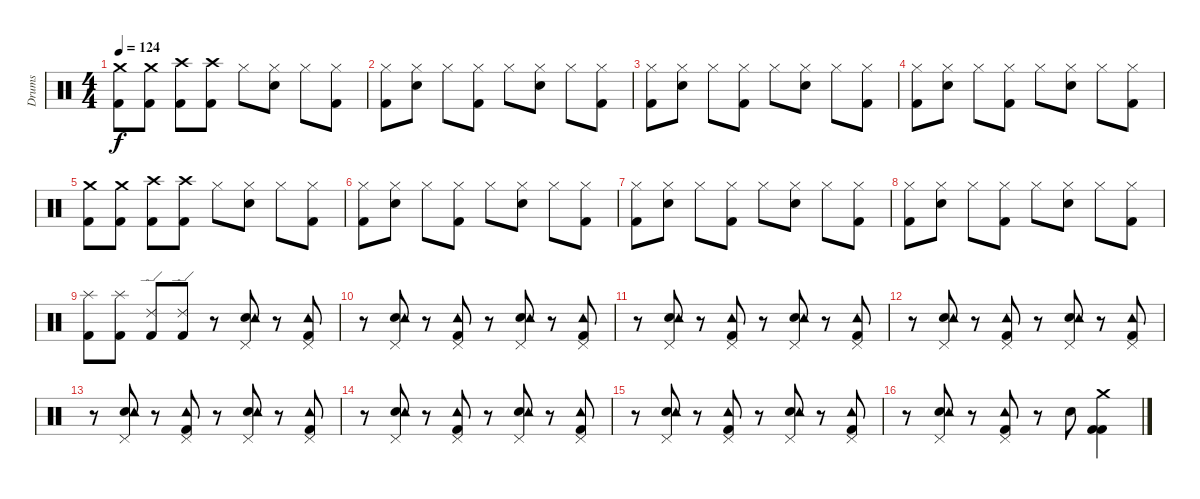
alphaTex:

\track ("Drums" "Drums") {instrument percussion}
\staff {score}
\articulation defaults
\ts (4 4)
\tempo 124
\clef neutral
\ks c
("Crash medium (hit)" "Kick (hit) 2").8{dy f} ("Crash medium (hit)" "Kick (hit) 2").8 ("Crash high (hit)" "Kick (hit) 2").8 ("Crash high (hit)" "Kick (hit) 2").8 "Hi-Hat (closed)".8 ("Snare (hit) 2" "Hi-Hat (closed)").8 "Hi-Hat (closed)".8 ("Kick (hit) 2" "Hi-Hat (closed)").8 |
("Kick (hit) 2" "Hi-Hat (closed)").8 ("Snare (hit) 2" "Hi-Hat (closed)").8 "Hi-Hat (closed)".8 ("Kick (hit) 2" "Hi-Hat (closed)").8 "Hi-Hat (closed)".8 ("Snare (hit) 2" "Hi-Hat (closed)").8 "Hi-Hat (closed)".8 ("Kick (hit) 2" "Hi-Hat (closed)").8 |
("Kick (hit) 2" "Hi-Hat (closed)").8 ("Snare (hit) 2" "Hi-Hat (closed)").8 "Hi-Hat (closed)".8 ("Kick (hit) 2" "Hi-Hat (closed)").8 "Hi-Hat (closed)".8 ("Snare (hit) 2" "Hi-Hat (closed)").8 "Hi-Hat (closed)".8 ("Kick (hit) 2" "Hi-Hat (closed)").8 |
("Kick (hit) 2" "Hi-Hat (closed)").8 ("Snare (hit) 2" "Hi-Hat (closed)").8 "Hi-Hat (closed)".8 ("Kick (hit) 2" "Hi-Hat (closed)").8 "Hi-Hat (closed)".8 ("Snare (hit) 2" "Hi-Hat (closed)").8 "Hi-Hat (closed)".8 ("Kick (hit) 2" "Hi-Hat (closed)").8 |
("Crash medium (hit)" "Kick (hit) 2").8 ("Crash medium (hit)" "Kick (hit) 2").8 ("Crash high (hit)" "Kick (hit) 2").8 ("Crash high (hit)" "Kick (hit) 2").8 "Hi-Hat (closed)".8 ("Snare (hit) 2" "Hi-Hat (closed)").8 "Hi-Hat (closed)".8 ("Kick (hit) 2" "Hi-Hat (closed)").8 |
("Kick (hit) 2" "Hi-Hat (closed)").8 ("Snare (hit) 2" "Hi-Hat (closed)").8 "Hi-Hat (closed)".8 ("Kick (hit) 2" "Hi-Hat (closed)").8 "Hi-Hat (closed)".8 ("Snare (hit) 2" "Hi-Hat (closed)").8 "Hi-Hat (closed)".8 ("Kick (hit) 2" "Hi-Hat (closed)").8 |
("Kick (hit) 2" "Hi-Hat (closed)").8 ("Snare (hit) 2" "Hi-Hat (closed)").8 "Hi-Hat (closed)".8 ("Kick (hit) 2" "Hi-Hat (closed)").8 "Hi-Hat (closed)".8 ("Snare (hit) 2" "Hi-Hat (closed)").8 "Hi-Hat (closed)".8 ("Kick (hit) 2" "Hi-Hat (closed)").8 |
("Kick (hit) 2" "Hi-Hat (closed)").8 ("Snare (hit) 2" "Hi-Hat (closed)").8 "Hi-Hat (closed)".8 ("Kick (hit) 2" "Hi-Hat (closed)").8 "Hi-Hat (closed)".8 ("Snare (hit) 2" "Hi-Hat (closed)").8 "Hi-Hat (closed)".8 ("Kick (hit) 2" "Hi-Hat (closed)").8 |
("Splash (hit)" "Kick (hit) 2").8 ("Splash (hit)" "Kick (hit) 2").8 ("Ride (edge) 2" "Kick (hit) 2").8 ("Ride (edge) 2" "Kick (hit) 2").8 r.8 ("Snare (hit) 2" "Tambourine (hit)" "Pedal Hi-Hat (hit)").8 r.8 ("Kick (hit) 2" "Tambourine (hit)" "Pedal Hi-Hat (hit)").8 |
r.8 ("Snare (hit) 2" "Tambourine (hit)" "Pedal Hi-Hat (hit)").8 r.8 ("Kick (hit) 2" "Tambourine (hit)" "Pedal Hi-Hat (hit)").8 r.8 ("Snare (hit) 2" "Tambourine (hit)" "Pedal Hi-Hat (hit)").8 r.8 ("Kick (hit) 2" "Tambourine (hit)" "Pedal Hi-Hat (hit)").8 |
r.8 ("Snare (hit) 2" "Tambourine (hit)" "Pedal Hi-Hat (hit)").8 r.8 ("Kick (hit) 2" "Tambourine (hit)" "Pedal Hi-Hat (hit)").8 r.8 ("Snare (hit) 2" "Tambourine (hit)" "Pedal Hi-Hat (hit)").8 r.8 ("Kick (hit) 2" "Tambourine (hit)" "Pedal Hi-Hat (hit)").8 |
r.8 ("Snare (hit) 2" "Tambourine (hit)" "Pedal Hi-Hat (hit)").8 r.8 ("Kick (hit) 2" "Tambourine (hit)" "Pedal Hi-Hat (hit)").8 r.8 ("Snare (hit) 2" "Tambourine (hit)" "Pedal Hi-Hat (hit)").8 r.8 ("Kick (hit) 2" "Tambourine (hit)" "Pedal Hi-Hat (hit)").8 |
r.8 ("Snare (hit) 2" "Tambourine (hit)" "Pedal Hi-Hat (hit)").8 r.8 ("Kick (hit) 2" "Tambourine (hit)" "Pedal Hi-Hat (hit)").8 r.8 ("Snare (hit) 2" "Tambourine (hit)" "Pedal Hi-Hat (hit)").8 r.8 ("Kick (hit) 2" "Tambourine (hit)" "Pedal Hi-Hat (hit)").8 |
r.8 ("Snare (hit) 2" "Tambourine (hit)" "Pedal Hi-Hat (hit)").8 r.8 ("Kick (hit) 2" "Tambourine (hit)" "Pedal Hi-Hat (hit)").8 r.8 ("Snare (hit) 2" "Tambourine (hit)" "Pedal Hi-Hat (hit)").8 r.8 ("Kick (hit) 2" "Tambourine (hit)" "Pedal Hi-Hat (hit)").8 |
r.8 ("Snare (hit) 2" "Tambourine (hit)" "Pedal Hi-Hat (hit)").8 r.8 ("Kick (hit) 2" "Tambourine (hit)" "Pedal Hi-Hat (hit)").8 r.8 ("Snare (hit) 2" "Tambourine (hit)" "Pedal Hi-Hat (hit)").8 r.8 ("Kick (hit) 2" "Tambourine (hit)" "Pedal Hi-Hat (hit)").8 |
r.8 ("Snare (hit) 2" "Tambourine (hit)" "Pedal Hi-Hat (hit)").8 r.8 ("Kick (hit) 2" "Tambourine (hit)" "Pedal Hi-Hat (hit)").8 r.8 "Snare (hit) 2".8 ("Kick (hit) 2" "Crash medium (hit)" "Kick (hit) 2").4
